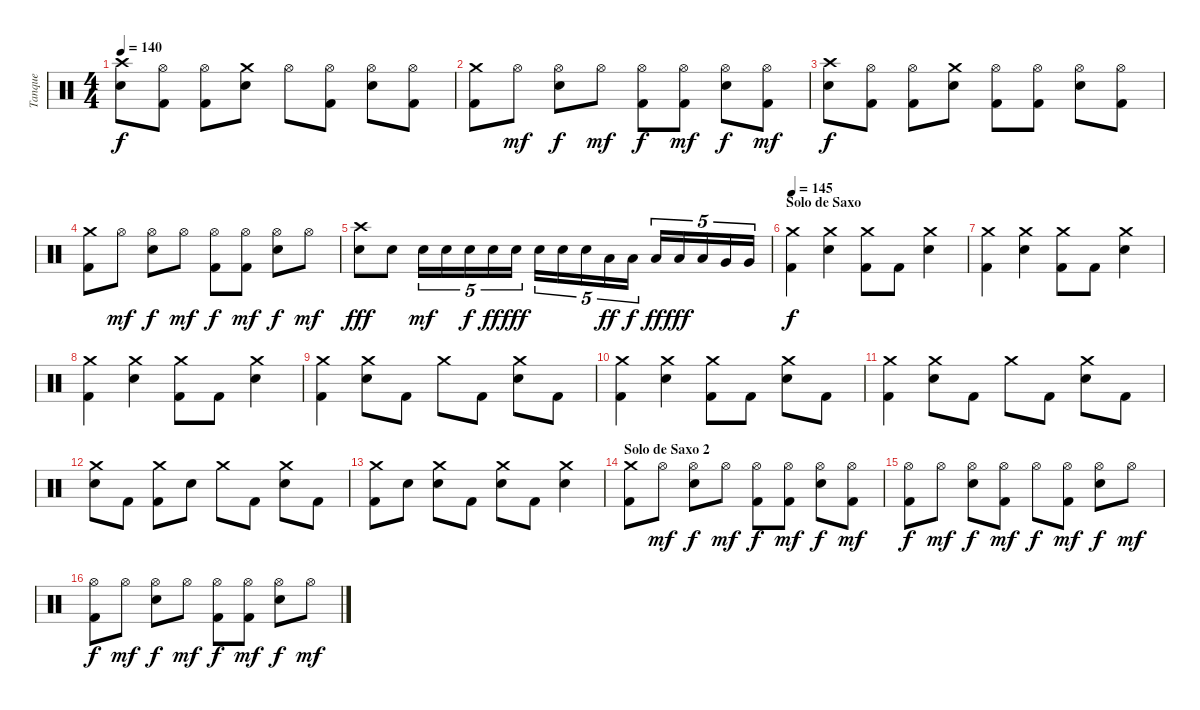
\track ("Tanque" "Tanque") {instrument percussion}
\staff {score}
\articulation defaults
\ts (4 4)
\tempo 140
\clef neutral
\ks c
("Crash high (hit)" "Electric Snare (hit)").8{dy f} ("Hi-Hat (open)" "Kick (hit) 2").8 ("Hi-Hat (open)" "Kick (hit) 2").8 ("Crash medium (hit)" "Electric Snare (hit)").8 "Hi-Hat (open)".8 ("Hi-Hat (open)" "Kick (hit) 2").8 ("Hi-Hat (open)" "Electric Snare (hit)").8 ("Hi-Hat (open)" "Kick (hit) 2").8 |
("Crash medium (hit)" "Kick (hit) 2").8 "Hi-Hat (open)".8{dy mf} ("Hi-Hat (open)" "Electric Snare (hit)").8{dy f} "Hi-Hat (open)".8{dy mf} ("Hi-Hat (open)" "Kick (hit) 2").8{dy f} ("Hi-Hat (open)" "Kick (hit) 2").8{dy mf} ("Hi-Hat (open)" "Electric Snare (hit)").8{dy f} ("Hi-Hat (open)" "Kick (hit) 2").8{dy mf} |
("Crash high (hit)" "Electric Snare (hit)").8{dy f} ("Hi-Hat (open)" "Kick (hit) 2").8 ("Hi-Hat (open)" "Kick (hit) 2").8 ("Crash medium (hit)" "Electric Snare (hit)").8 ("Hi-Hat (open)" "Kick (hit) 2").8 ("Hi-Hat (open)" "Kick (hit) 2").8 ("Hi-Hat (open)" "Electric Snare (hit)").8 ("Hi-Hat (open)" "Kick (hit) 2").8 |
("Crash medium (hit)" "Kick (hit) 2").8 "Hi-Hat (open)".8{dy mf} ("Hi-Hat (open)" "Electric Snare (hit)").8{dy f} "Hi-Hat (open)".8{dy mf} ("Hi-Hat (open)" "Kick (hit) 2").8{dy f} ("Hi-Hat (open)" "Kick (hit) 2").8{dy mf} ("Hi-Hat (open)" "Electric Snare (hit)").8{dy f} "Hi-Hat (open)".8{dy mf} |
("Crash high (hit)" "Electric Snare (hit)").8{dy fff} "Electric Snare (hit)".8 "Electric Snare (hit)".16{tu (5 4) dy mf} "Electric Snare (hit)".16{tu (5 4)} "Electric Snare (hit)".16{tu (5 4) dy f} "Electric Snare (hit)".16{tu (5 4) dy ff} "Electric Snare (hit)".16{tu (5 4) dy fff} "Electric Snare (hit)".16{tu (5 4)} "Electric Snare (hit)".16{tu (5 4)} "Electric Snare (hit)".16{tu (5 4)} "Low Tom (hit)".16{tu (5 4) dy ff} "Low Tom (hit)".16{tu (5 4) dy f} "Low Tom (hit)".16{tu (5 4) dy ff} "Low Tom (hit)".16{tu (5 4) dy fff} "Low Tom (hit)".16{tu (5 4)} "Very Low Tom (hit)".16{tu (5 4)} "Very Low Tom (hit)".16{tu (5 4)} |
\section ("" "Solo de Saxo")
\tempo 145
("Crash medium (hit)" "Kick (hit) 2").4{dy f} ("Crash medium (hit)" "Electric Snare (hit)").4 ("Crash medium (hit)" "Kick (hit) 2").8 "Kick (hit) 2".8 ("Crash medium (hit)" "Electric Snare (hit)").4 |
("Crash medium (hit)" "Kick (hit) 2").4 ("Crash medium (hit)" "Electric Snare (hit)").4 ("Crash medium (hit)" "Kick (hit) 2").8 "Kick (hit) 2".8 ("Crash medium (hit)" "Electric Snare (hit)").4 |
("Crash medium (hit)" "Kick (hit) 2").4 ("Crash medium (hit)" "Electric Snare (hit)").4 ("Crash medium (hit)" "Kick (hit) 2").8 "Kick (hit) 2".8 ("Crash medium (hit)" "Electric Snare (hit)").4 |
("Crash medium (hit)" "Kick (hit) 2").4 ("Crash medium (hit)" "Electric Snare (hit)").8 "Kick (hit) 2".8 "Crash medium (hit)".8 "Kick (hit) 2".8 ("Crash medium (hit)" "Electric Snare (hit)").8 "Kick (hit) 2".8 |
("Crash medium (hit)" "Kick (hit) 2").4 ("Crash medium (hit)" "Electric Snare (hit)").4 ("Crash medium (hit)" "Kick (hit) 2").8 "Kick (hit) 2".8 ("Crash medium (hit)" "Electric Snare (hit)").8 "Kick (hit) 2".8 |
("Crash medium (hit)" "Kick (hit) 2").4 ("Crash medium (hit)" "Electric Snare (hit)").8 "Kick (hit) 2".8 "Crash medium (hit)".8 "Kick (hit) 2".8 ("Crash medium (hit)" "Electric Snare (hit)").8 "Kick (hit) 2".8 |
("Crash medium (hit)" "Electric Snare (hit)").8 "Kick (hit) 2".8 ("Crash medium (hit)" "Kick (hit) 2").8 "Electric Snare (hit)".8 "Crash medium (hit)".8 "Kick (hit) 2".8 ("Crash medium (hit)" "Electric Snare (hit)").8 "Kick (hit) 2".8 |
("Crash medium (hit)" "Kick (hit) 2").8 "Electric Snare (hit)".8 ("Crash medium (hit)" "Electric Snare (hit)").8 "Kick (hit) 2".8 ("Crash medium (hit)" "Electric Snare (hit)").8 "Kick (hit) 2".8 ("Crash medium (hit)" "Electric Snare (hit)").4 |
\section ("" "Solo de Saxo 2")
("Crash medium (hit)" "Kick (hit) 2").8 "Hi-Hat (open)".8{dy mf} ("Hi-Hat (open)" "Electric Snare (hit)").8{dy f} "Hi-Hat (open)".8{dy mf} ("Hi-Hat (open)" "Kick (hit) 2").8{dy f} ("Hi-Hat (open)" "Kick (hit) 2").8{dy mf} ("Hi-Hat (open)" "Electric Snare (hit)").8{dy f} ("Hi-Hat (open)" "Kick (hit) 2").8{dy mf} |
("Hi-Hat (open)" "Kick (hit) 2").8{dy f} "Hi-Hat (open)".8{dy mf} ("Hi-Hat (open)" "Electric Snare (hit)").8{dy f} ("Hi-Hat (open)" "Kick (hit) 2").8{dy mf} "Hi-Hat (open)".8{dy f} ("Hi-Hat (open)" "Kick (hit) 2").8{dy mf} ("Hi-Hat (open)" "Electric Snare (hit)").8{dy f} "Hi-Hat (open)".8{dy mf} |
("Hi-Hat (open)" "Kick (hit) 2").8{dy f} "Hi-Hat (open)".8{dy mf} ("Hi-Hat (open)" "Electric Snare (hit)").8{dy f} "Hi-Hat (open)".8{dy mf} ("Hi-Hat (open)" "Kick (hit) 2").8{dy f} ("Hi-Hat (open)" "Kick (hit) 2").8{dy mf} ("Hi-Hat (open)" "Electric Snare (hit)").8{dy f} "Hi-Hat (open)".8{dy mf}
